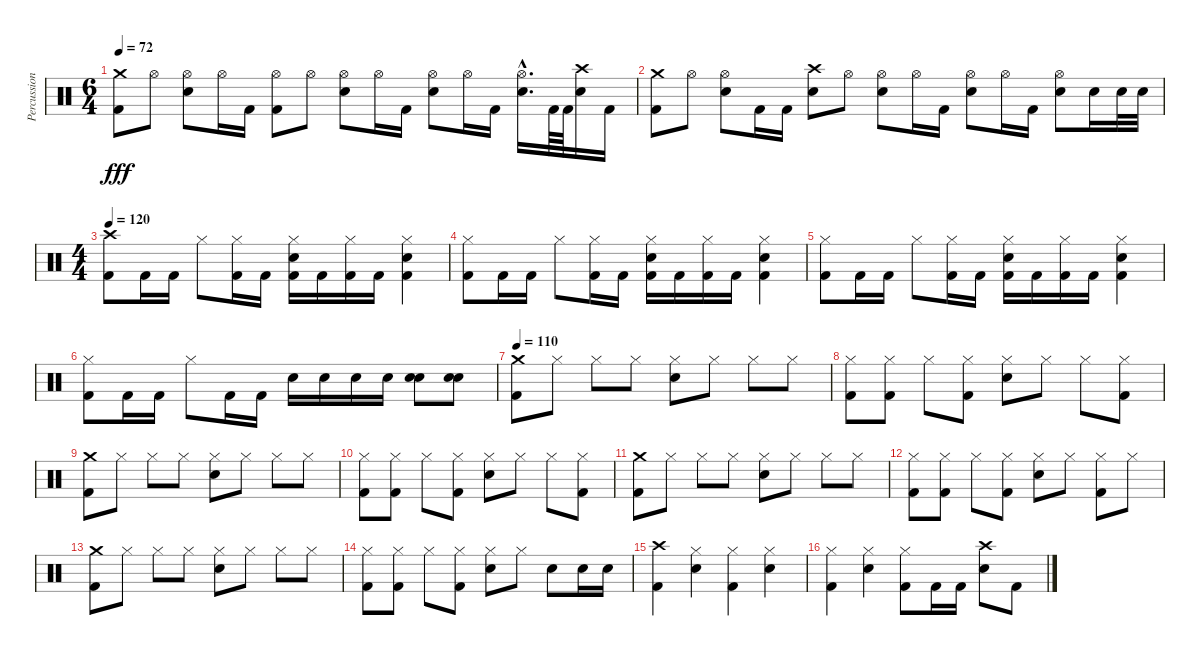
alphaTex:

\track ("Percussion" "Percussion") {instrument percussion}
\staff {score}
\articulation defaults
\ts (6 4)
\tempo 72
\clef neutral
\ks c
("Crash medium (hit)" "Kick (hit) 2").8{dy fff} "Hi-Hat (open)".8 ("Hi-Hat (open)" "Snare (hit) 2").8 "Hi-Hat (open)".16 "Kick (hit) 2".16 ("Hi-Hat (open)" "Kick (hit) 2").8 "Hi-Hat (open)".8 ("Hi-Hat (open)" "Snare (hit) 2").8 "Hi-Hat (open)".16 "Kick (hit) 2".16 ("Hi-Hat (open)" "Snare (hit) 2").8 "Hi-Hat (open)".16 "Kick (hit) 2".16 ("Hi-Hat (open)"{hac} "Snare (hit) 2"{hac}).16{d} "Kick (hit) 2".64 "Kick (hit) 2".64 ("Crash high (hit)" "Snare (hit) 2").16 "Kick (hit) 2".16 |
("Crash medium (hit)" "Kick (hit) 2").8 "Hi-Hat (open)".8 ("Hi-Hat (open)" "Snare (hit) 2").8 "Kick (hit) 2".16 "Kick (hit) 2".16 ("Crash high (hit)" "Snare (hit) 2").8 "Hi-Hat (open)".8 ("Hi-Hat (open)" "Snare (hit) 2").8 "Hi-Hat (open)".16 "Kick (hit) 2".16 ("Hi-Hat (open)" "Snare (hit) 2").8 "Hi-Hat (open)".16 "Kick (hit) 2".16 ("Hi-Hat (open)" "Snare (hit) 2").8 "Snare (hit) 2".16 "Snare (hit) 2".32 "Snare (hit) 2".32 |
\ts (4 4)
\tempo 120
("Crash high (hit)" "Kick (hit) 2").8 "Kick (hit) 2".16 "Kick (hit) 2".16 "Hi-Hat (closed)".8 ("Hi-Hat (closed)" "Kick (hit) 2").16 "Kick (hit) 2".16 ("Hi-Hat (closed)" "Snare (hit) 2" "Kick (hit) 2").16 "Kick (hit) 2".16 ("Hi-Hat (closed)" "Kick (hit) 2").16 "Kick (hit) 2".16 ("Hi-Hat (closed)" "Snare (hit) 2" "Kick (hit) 2").4 |
("Hi-Hat (closed)" "Kick (hit) 2").8 "Kick (hit) 2".16 "Kick (hit) 2".16 "Hi-Hat (closed)".8 ("Hi-Hat (closed)" "Kick (hit) 2").16 "Kick (hit) 2".16 ("Hi-Hat (closed)" "Snare (hit) 2" "Kick (hit) 2").16 "Kick (hit) 2".16 ("Hi-Hat (closed)" "Kick (hit) 2").16 "Kick (hit) 2".16 ("Hi-Hat (closed)" "Snare (hit) 2" "Kick (hit) 2").4 |
("Hi-Hat (closed)" "Kick (hit) 2").8 "Kick (hit) 2".16 "Kick (hit) 2".16 "Hi-Hat (closed)".8 ("Hi-Hat (closed)" "Kick (hit) 2").16 "Kick (hit) 2".16 ("Hi-Hat (closed)" "Snare (hit) 2" "Kick (hit) 2").16 "Kick (hit) 2".16 ("Hi-Hat (closed)" "Kick (hit) 2").16 "Kick (hit) 2".16 ("Hi-Hat (closed)" "Snare (hit) 2" "Kick (hit) 2").4 |
("Hi-Hat (closed)" "Kick (hit) 2").8 "Kick (hit) 2".16 "Kick (hit) 2".16 "Hi-Hat (closed)".8 "Kick (hit) 2".16 "Kick (hit) 2".16 "Snare (hit) 2".16 "Snare (hit) 2".16 "Snare (hit) 2".16 "Snare (hit) 2".16 ("Snare (hit) 2" "Snare (hit) 2").8 ("Snare (hit) 2" "Snare (hit) 2").8 |
\tempo 110
("Crash medium (hit)" "Kick (hit) 2").8 "Hi-Hat (closed)".8 "Hi-Hat (closed)".8 "Hi-Hat (closed)".8 ("Hi-Hat (closed)" "Snare (hit) 2").8 "Hi-Hat (closed)".8 "Hi-Hat (closed)".8 "Hi-Hat (closed)".8 |
("Hi-Hat (closed)" "Kick (hit) 2").8 ("Hi-Hat (closed)" "Kick (hit) 2").8 "Hi-Hat (closed)".8 ("Hi-Hat (closed)" "Kick (hit) 2").8 ("Hi-Hat (closed)" "Snare (hit) 2").8 "Hi-Hat (closed)".8 "Hi-Hat (closed)".8 ("Hi-Hat (closed)" "Kick (hit) 2").8 |
("Crash medium (hit)" "Kick (hit) 2").8 "Hi-Hat (closed)".8 "Hi-Hat (closed)".8 "Hi-Hat (closed)".8 ("Hi-Hat (closed)" "Snare (hit) 2").8 "Hi-Hat (closed)".8 "Hi-Hat (closed)".8 "Hi-Hat (closed)".8 |
("Hi-Hat (closed)" "Kick (hit) 2").8 ("Hi-Hat (closed)" "Kick (hit) 2").8 "Hi-Hat (closed)".8 ("Hi-Hat (closed)" "Kick (hit) 2").8 ("Hi-Hat (closed)" "Snare (hit) 2").8 "Hi-Hat (closed)".8 "Hi-Hat (closed)".8 ("Hi-Hat (closed)" "Kick (hit) 2").8 |
("Crash medium (hit)" "Kick (hit) 2").8 "Hi-Hat (closed)".8 "Hi-Hat (closed)".8 "Hi-Hat (closed)".8 ("Hi-Hat (closed)" "Snare (hit) 2").8 "Hi-Hat (closed)".8 "Hi-Hat (closed)".8 "Hi-Hat (closed)".8 |
("Hi-Hat (closed)" "Kick (hit) 2").8 ("Hi-Hat (closed)" "Kick (hit) 2").8 "Hi-Hat (closed)".8 ("Hi-Hat (closed)" "Kick (hit) 2").8 ("Hi-Hat (closed)" "Snare (hit) 2").8 "Hi-Hat (closed)".8 ("Hi-Hat (closed)" "Kick (hit) 2").8 "Hi-Hat (closed)".8 |
("Crash medium (hit)" "Kick (hit) 2").8 "Hi-Hat (closed)".8 "Hi-Hat (closed)".8 "Hi-Hat (closed)".8 ("Hi-Hat (closed)" "Snare (hit) 2").8 "Hi-Hat (closed)".8 "Hi-Hat (closed)".8 "Hi-Hat (closed)".8 |
("Hi-Hat (closed)" "Kick (hit) 2").8 ("Hi-Hat (closed)" "Kick (hit) 2").8 "Hi-Hat (closed)".8 ("Hi-Hat (closed)" "Kick (hit) 2").8 ("Hi-Hat (closed)" "Snare (hit) 2").8 "Hi-Hat (closed)".8 "Snare (hit) 2".8 "Snare (hit) 2".16 "Snare (hit) 2".16 |
("Crash high (hit)" "Kick (hit) 2").4 ("Hi-Hat (closed)" "Snare (hit) 2").4 ("Hi-Hat (closed)" "Kick (hit) 2").4 ("Hi-Hat (closed)" "Snare (hit) 2").4 |
("Hi-Hat (closed)" "Kick (hit) 2").4 ("Hi-Hat (closed)" "Snare (hit) 2").4 ("Hi-Hat (closed)" "Kick (hit) 2").8 "Kick (hit) 2".16 "Kick (hit) 2".16 ("Crash high (hit)" "Snare (hit) 2").8 "Kick (hit) 2".8
